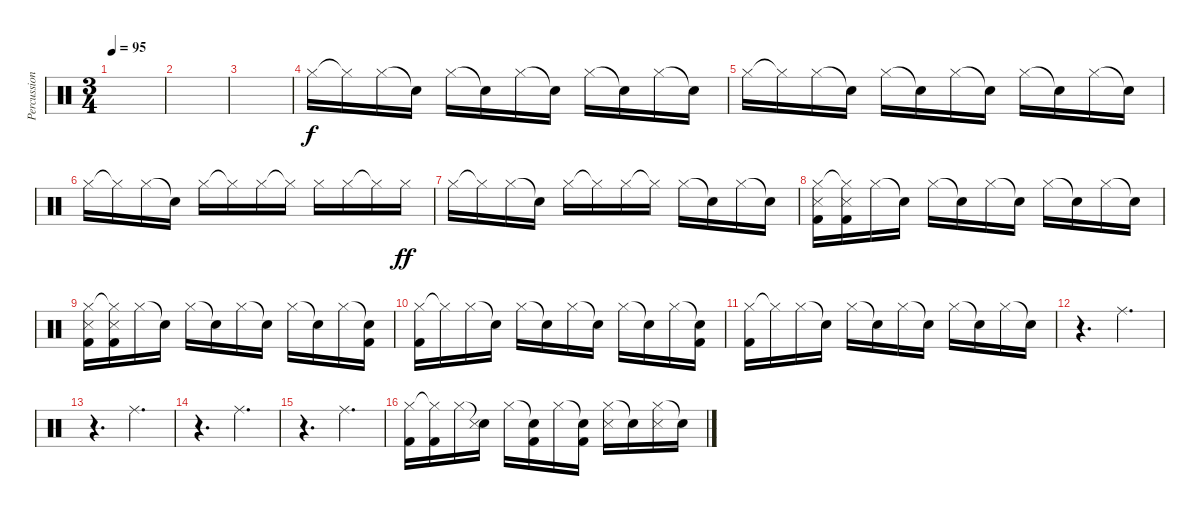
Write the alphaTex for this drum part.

\track ("Percussioni" "Percussion") {instrument percussion}
\staff {score}
\articulation defaults
\ts (3 4)
\tempo 95
\clef neutral
\ks c
|
|
|
"Hi-Hat (closed)".16 "Hi-Hat (closed)"{t}.16 "Hi-Hat (closed)".16 "Snare (hit)"{t}.16 "Hi-Hat (closed)".16 "Snare (hit)"{t}.16 "Hi-Hat (closed)".16 "Snare (hit)"{t}.16 "Hi-Hat (closed)".16 "Snare (hit)"{t}.16 "Hi-Hat (closed)".16 "Snare (hit)"{t}.16 |
"Hi-Hat (closed)".16 "Hi-Hat (closed)"{t}.16 "Hi-Hat (closed)".16 "Snare (hit)"{t}.16 "Hi-Hat (closed)".16 "Snare (hit)"{t}.16 "Hi-Hat (closed)".16 "Snare (hit)"{t}.16 "Hi-Hat (closed)".16 "Snare (hit)"{t}.16 "Hi-Hat (closed)".16 "Snare (hit)"{t}.16 |
"Hi-Hat (closed)".16 "Hi-Hat (closed)"{t}.16 "Hi-Hat (closed)".16 "Snare (hit)"{t}.16 "Hi-Hat (closed)".16 "Hi-Hat (closed)"{t}.16 "Hi-Hat (closed)".16 "Hi-Hat (closed)"{t}.16 "Hi-Hat (closed)".16 "Hi-Hat (closed)".16 "Hi-Hat (closed)"{t}.16{dy f} "Hi-Hat (closed)".16{dy ff} |
"Hi-Hat (closed)".16 "Hi-Hat (closed)"{t}.16 "Hi-Hat (closed)".16 "Snare (hit)"{t}.16 "Hi-Hat (closed)".16 "Hi-Hat (closed)"{t}.16 "Hi-Hat (closed)".16 "Hi-Hat (closed)"{t}.16 "Hi-Hat (closed)".16 "Snare (hit)"{t}.16 "Hi-Hat (closed)".16 "Snare (hit)"{t}.16 |
("Hi-Hat (closed)" "Snare (side stick) 3" "Kick (hit) 2").16 ("Hi-Hat (closed)"{t} "Snare (side stick) 3" "Kick (hit) 2").16 "Hi-Hat (closed)".16 "Snare (hit)"{t}.16 "Hi-Hat (closed)".16 "Snare (hit)"{t}.16 "Hi-Hat (closed)".16 "Snare (hit)"{t}.16 "Hi-Hat (closed)".16 "Snare (hit)"{t}.16 "Hi-Hat (closed)".16 "Snare (hit)"{t}.16 |
("Hi-Hat (closed)" "Snare (side stick) 3" "Kick (hit) 2").16 ("Hi-Hat (closed)"{t} "Snare (side stick) 3" "Kick (hit) 2").16 "Hi-Hat (closed)".16 "Snare (hit)"{t}.16 "Hi-Hat (closed)".16 "Snare (hit)"{t}.16 "Hi-Hat (closed)".16 "Snare (hit)"{t}.16 "Hi-Hat (closed)".16 "Snare (hit)"{t}.16 "Hi-Hat (closed)".16 ("Snare (hit)"{t} "Kick (hit) 2").16 |
("Hi-Hat (closed)" "Kick (hit) 2").16 "Hi-Hat (closed)"{t}.16 "Hi-Hat (closed)".16 "Snare (hit)"{t}.16 "Hi-Hat (closed)".16 "Snare (hit)"{t}.16 "Hi-Hat (closed)".16 "Snare (hit)"{t}.16 "Hi-Hat (closed)".16 "Snare (hit)"{t}.16 "Hi-Hat (closed)".16 ("Snare (hit)"{t} "Kick (hit) 2").16 |
("Hi-Hat (closed)" "Kick (hit) 2").16 "Hi-Hat (closed)"{t}.16 "Hi-Hat (closed)".16 "Snare (hit)"{t}.16 "Hi-Hat (closed)".16 "Snare (hit)"{t}.16 "Hi-Hat (closed)".16 "Snare (hit)"{t}.16 "Hi-Hat (closed)".16 "Snare (hit)"{t}.16 "Hi-Hat (closed)".16 "Snare (hit)"{t}.16 |
r.4{d} "Ride (middle)".4{d} |
r.4{d} "Ride (middle)".4{d} |
r.4{d} "Ride (middle)".4{d} |
r.4{d} "Ride (middle)".4{d} |
("Hi-Hat (closed)" "Kick (hit) 2").16 ("Hi-Hat (closed)"{t} "Kick (hit) 2").16 "Hi-Hat (closed)".16 ("Snare (hit)"{t} "Snare (side stick) 3").16 "Hi-Hat (closed)".16 ("Snare (hit)"{t} "Kick (hit) 2").16 "Hi-Hat (closed)".16 ("Snare (hit)"{t} "Kick (hit) 2").16 ("Hi-Hat (closed)" "Snare (side stick) 3").16 "Snare (hit)"{t}.16 ("Hi-Hat (closed)" "Snare (side stick) 3").16 "Snare (hit)"{t}.16
